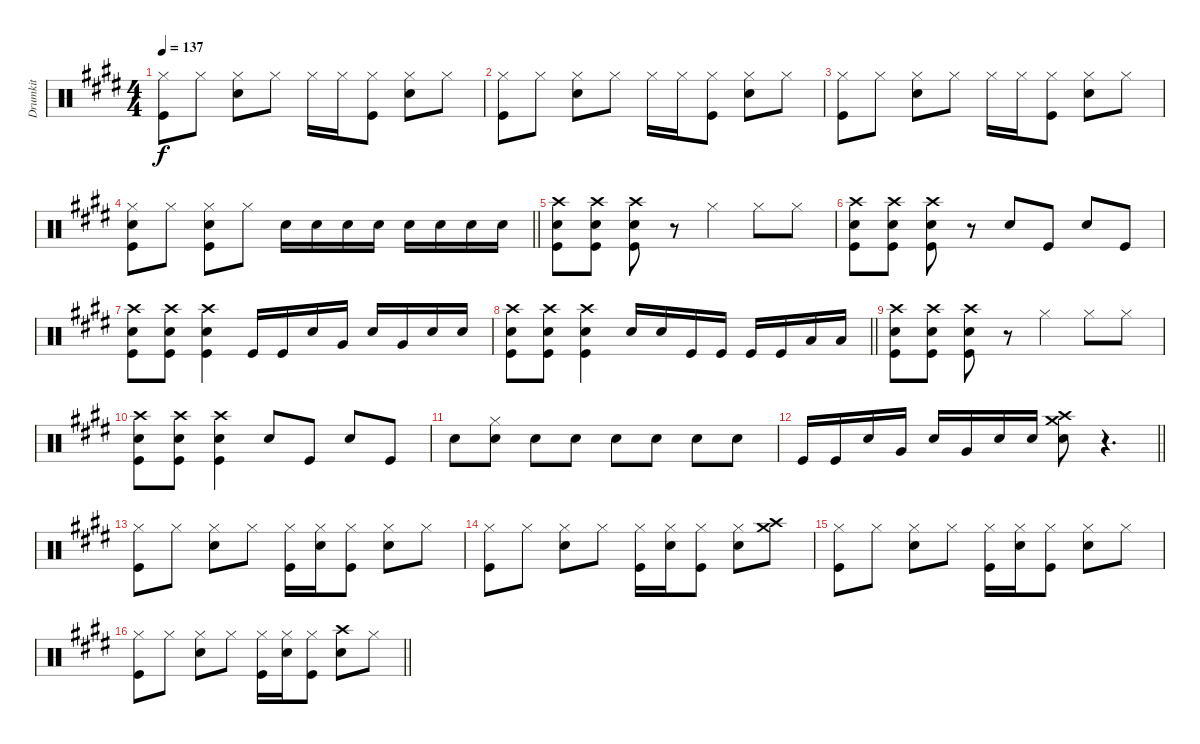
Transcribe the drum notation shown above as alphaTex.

\track ("Drumkit" "Drumkit") {instrument percussion}
\staff {score}
\articulation defaults
\ts (4 4)
\tempo 137
\clef neutral
\ks e
("Hi-Hat (closed)" "Kick (hit)").8{dy f} "Hi-Hat (closed)".8 ("Hi-Hat (closed)" "Snare (hit) 2").8 "Hi-Hat (closed)".8 "Hi-Hat (closed)".16 "Hi-Hat (closed)".16 ("Hi-Hat (closed)" "Kick (hit)").8 ("Hi-Hat (closed)" "Snare (hit) 2").8 "Hi-Hat (closed)".8 |
("Hi-Hat (closed)" "Kick (hit)").8 "Hi-Hat (closed)".8 ("Hi-Hat (closed)" "Snare (hit) 2").8 "Hi-Hat (closed)".8 "Hi-Hat (closed)".16 "Hi-Hat (closed)".16 ("Hi-Hat (closed)" "Kick (hit)").8 ("Hi-Hat (closed)" "Snare (hit) 2").8 "Hi-Hat (closed)".8 |
("Hi-Hat (closed)" "Kick (hit)").8 "Hi-Hat (closed)".8 ("Hi-Hat (closed)" "Snare (hit) 2").8 "Hi-Hat (closed)".8 "Hi-Hat (closed)".16 "Hi-Hat (closed)".16 ("Hi-Hat (closed)" "Kick (hit)").8 ("Hi-Hat (closed)" "Snare (hit) 2").8 "Hi-Hat (closed)".8 |
\barLineRight lightlight
("Hi-Hat (closed)" "Kick (hit)" "Snare (hit) 2").8 "Hi-Hat (closed)".8 ("Hi-Hat (closed)" "Snare (hit) 2" "Kick (hit)").8 "Hi-Hat (closed)".8 "Snare (hit) 2".16 "Snare (hit) 2".16 "Snare (hit) 2".16 "Snare (hit) 2".16 "Snare (hit) 2".16 "Snare (hit) 2".16 "Snare (hit) 2".16 "Snare (hit) 2".16 |
("Crash high (hit)" "Kick (hit)" "Snare (hit) 2").8 ("Crash high (hit)" "Kick (hit)" "Snare (hit) 2").8 ("Crash high (hit)" "Kick (hit)" "Snare (hit) 2").8 r.8 "Hi-Hat (closed)".4 "Hi-Hat (closed)".8 "Hi-Hat (closed)".8 |
("Crash high (hit)" "Kick (hit)" "Snare (hit) 2").8 ("Crash high (hit)" "Kick (hit)" "Snare (hit) 2").8 ("Crash high (hit)" "Kick (hit)" "Snare (hit) 2").8 r.8 "Snare (hit) 2".8 "Kick (hit)".8 "Snare (hit) 2".8 "Kick (hit)".8 |
("Crash high (hit)" "Kick (hit)" "Snare (hit) 2").8 ("Crash high (hit)" "Kick (hit)" "Snare (hit) 2").8 ("Crash high (hit)" "Kick (hit)" "Snare (hit) 2").4 "Kick (hit)".16 "Kick (hit)".16 "Snare (hit) 2".16 "Very Low Tom (hit)".16 "Snare (hit) 2".16 "Very Low Tom (hit)".16 "Snare (hit) 2".16 "Snare (hit) 2".16 |
\barLineRight lightlight
("Crash high (hit)" "Kick (hit)" "Snare (hit) 2").8 ("Crash high (hit)" "Kick (hit)" "Snare (hit) 2").8 ("Crash high (hit)" "Kick (hit)" "Snare (hit) 2").4 "Snare (hit) 2".16 "Snare (hit) 2".16 "Kick (hit)".16 "Kick (hit)".16 "Kick (hit)".16 "Kick (hit)".16 "Low Tom (hit)".16 "Low Tom (hit)".16 |
("Crash high (hit)" "Kick (hit)" "Snare (hit) 2").8 ("Crash high (hit)" "Kick (hit)" "Snare (hit) 2").8 ("Crash high (hit)" "Kick (hit)" "Snare (hit) 2").8 r.8 "Hi-Hat (closed)".4 "Hi-Hat (closed)".8 "Hi-Hat (closed)".8 |
("Crash high (hit)" "Kick (hit)" "Snare (hit) 2").8 ("Crash high (hit)" "Kick (hit)" "Snare (hit) 2").8 ("Crash high (hit)" "Kick (hit)" "Snare (hit) 2").4 "Snare (hit) 2".8 "Kick (hit)".8 "Snare (hit) 2".8 "Kick (hit)".8 |
"Snare (hit) 2".8 ("Snare (hit) 2" "Hi-Hat (closed)").8 "Snare (hit) 2".8 "Snare (hit) 2".8 "Snare (hit) 2".8 "Snare (hit) 2".8 "Snare (hit) 2".8 "Snare (hit) 2".8 |
\barLineRight lightlight "Kick (hit)".16 "Kick (hit)".16 "Snare (hit) 2".16 "Very Low Tom (hit)".16 "Snare (hit) 2".16 "Very Low Tom (hit)".16 "Snare (hit) 2".16 "Snare (hit) 2".16
("Crash high (hit)" "Crash medium (hit)" "Snare (hit) 2").8 r.4{d} |
("Hi-Hat (closed)" "Kick (hit)").8 "Hi-Hat (closed)".8 ("Hi-Hat (closed)" "Snare (hit) 2").8 "Hi-Hat (closed)".8 ("Hi-Hat (closed)" "Kick (hit)").16 ("Hi-Hat (closed)" "Snare (hit) 2").16 ("Hi-Hat (closed)" "Kick (hit)").8 ("Hi-Hat (closed)" "Snare (hit) 2").8 "Hi-Hat (closed)".8 |
("Hi-Hat (closed)" "Kick (hit)").8 "Hi-Hat (closed)".8 ("Hi-Hat (closed)" "Snare (hit) 2").8 "Hi-Hat (closed)".8 ("Hi-Hat (closed)" "Kick (hit)").16 ("Hi-Hat (closed)" "Snare (hit) 2").16 ("Hi-Hat (closed)" "Kick (hit)").8 ("Hi-Hat (closed)" "Snare (hit) 2").8 ("Crash high (hit)" "Crash medium (hit)").8 |
("Hi-Hat (closed)" "Kick (hit)").8 "Hi-Hat (closed)".8 ("Hi-Hat (closed)" "Snare (hit) 2").8 "Hi-Hat (closed)".8 ("Hi-Hat (closed)" "Kick (hit)").16 ("Hi-Hat (closed)" "Snare (hit) 2").16 ("Hi-Hat (closed)" "Kick (hit)").8 ("Hi-Hat (closed)" "Snare (hit) 2").8 "Hi-Hat (closed)".8 |
\barLineRight lightlight
("Hi-Hat (closed)" "Kick (hit)").8 "Hi-Hat (closed)".8 ("Hi-Hat (closed)" "Snare (hit) 2").8 "Hi-Hat (closed)".8 ("Hi-Hat (closed)" "Kick (hit)").16 ("Hi-Hat (closed)" "Snare (hit) 2").16 ("Hi-Hat (closed)" "Kick (hit)").8 ("Snare (hit) 2" "Crash high (hit)").8 "Hi-Hat (closed)".8
